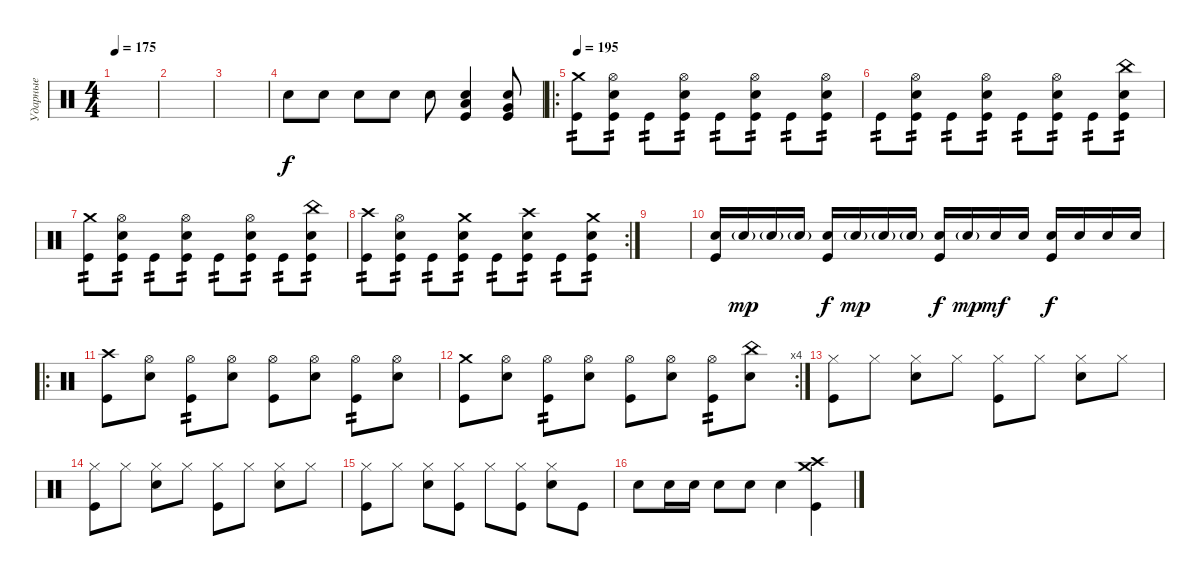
\track ("Ударные" "Ударные") {instrument percussion}
\staff {score}
\articulation defaults
\ts (4 4)
\tempo 175
\clef neutral
\ks c
|
|
|
"Snare (hit)".8 "Snare (hit)".8 "Snare (hit)".8 "Snare (hit)".8 "Snare (hit)".8 ("Electric Snare (hit)" "Low Floor Tom (hit)" "Kick (hit)").4 ("Electric Snare (hit)" "Very Low Tom (hit)" "Kick (hit)").8 |
\ro
\tempo 195
("Kick (hit)" "Crash medium (hit)").8{tp 2} ("Kick (hit)" "Electric Snare (hit)" "Hi-Hat (open)").8{tp 2} "Kick (hit)".8{tp 2} ("Kick (hit)" "Electric Snare (hit)" "Hi-Hat (open)").8{tp 2} "Kick (hit)".8{tp 2} ("Kick (hit)" "Electric Snare (hit)" "Hi-Hat (open)").8{tp 2} "Kick (hit)".8{tp 2} ("Kick (hit)" "Electric Snare (hit)" "Hi-Hat (open)").8{tp 2} |
"Kick (hit)".8{tp 2} ("Kick (hit)" "Electric Snare (hit)" "Hi-Hat (open)").8{tp 2} "Kick (hit)".8{tp 2} ("Kick (hit)" "Electric Snare (hit)" "Hi-Hat (open)").8{tp 2} "Kick (hit)".8{tp 2} ("Kick (hit)" "Electric Snare (hit)" "Hi-Hat (open)").8{tp 2} "Kick (hit)".8{tp 2} ("Kick (hit)" "Electric Snare (hit)" "China (hit)").8{tp 2} |
("Kick (hit)" "Crash medium (hit)").8{tp 2} ("Kick (hit)" "Electric Snare (hit)" "Hi-Hat (open)").8{tp 2} "Kick (hit)".8{tp 2} ("Kick (hit)" "Electric Snare (hit)" "Hi-Hat (open)").8{tp 2} "Kick (hit)".8{tp 2} ("Kick (hit)" "Electric Snare (hit)" "Hi-Hat (open)").8{tp 2} "Kick (hit)".8{tp 2} ("Kick (hit)" "Electric Snare (hit)" "China (hit)").8{tp 2} |
\rc 2
("Kick (hit)" "Crash high (hit)").8{tp 2} ("Kick (hit)" "Electric Snare (hit)" "Hi-Hat (open)").8{tp 2} "Kick (hit)".8{tp 2} ("Kick (hit)" "Electric Snare (hit)" "Crash medium (hit)").8{tp 2} "Kick (hit)".8{tp 2} ("Kick (hit)" "Electric Snare (hit)" "Crash high (hit)").8{tp 2} "Kick (hit)".8{tp 2} ("Kick (hit)" "Electric Snare (hit)" "Crash medium (hit)").8{tp 2} |
|
("Electric Snare (hit)" "Kick (hit)").16 "Electric Snare (hit)"{g}.16{dy mp} "Electric Snare (hit)"{g}.16 "Electric Snare (hit)"{g}.16 ("Electric Snare (hit)" "Kick (hit)").16{dy f} "Electric Snare (hit)"{g}.16{dy mp} "Electric Snare (hit)"{g}.16 "Electric Snare (hit)"{g}.16 ("Electric Snare (hit)" "Kick (hit)").16{dy f} "Electric Snare (hit)"{g}.16{dy mp} "Electric Snare (hit)".16{dy mf} "Electric Snare (hit)".16 ("Electric Snare (hit)" "Kick (hit)").16{dy f} "Electric Snare (hit)".16 "Electric Snare (hit)".16 "Electric Snare (hit)".16 |
\ro
("Kick (hit)" "Crash high (hit)").8 ("Electric Snare (hit)" "Hi-Hat (open)").8 ("Kick (hit)" "Hi-Hat (open)").8{tp 2} ("Electric Snare (hit)" "Hi-Hat (open)").8 ("Kick (hit)" "Hi-Hat (open)").8 ("Electric Snare (hit)" "Hi-Hat (open)").8 ("Kick (hit)" "Hi-Hat (open)").8{tp 2} ("Electric Snare (hit)" "Hi-Hat (open)").8 |
\rc 4
("Kick (hit)" "Crash medium (hit)").8 ("Electric Snare (hit)" "Hi-Hat (open)").8 ("Kick (hit)" "Hi-Hat (open)").8{tp 2} ("Electric Snare (hit)" "Hi-Hat (open)").8 ("Kick (hit)" "Hi-Hat (open)").8 ("Electric Snare (hit)" "Hi-Hat (open)").8 ("Kick (hit)" "Hi-Hat (open)").8{tp 2} ("Electric Snare (hit)" "China (hit)").8 |
("Hi-Hat (closed)" "Kick (hit)").8 "Hi-Hat (closed)".8 ("Hi-Hat (closed)" "Electric Snare (hit)").8 "Hi-Hat (closed)".8 ("Hi-Hat (closed)" "Kick (hit)").8 "Hi-Hat (closed)".8 ("Hi-Hat (closed)" "Electric Snare (hit)").8 "Hi-Hat (closed)".8 |
("Hi-Hat (closed)" "Kick (hit)").8 "Hi-Hat (closed)".8 ("Hi-Hat (closed)" "Electric Snare (hit)").8 "Hi-Hat (closed)".8 ("Hi-Hat (closed)" "Kick (hit)").8 "Hi-Hat (closed)".8 ("Hi-Hat (closed)" "Electric Snare (hit)").8 "Hi-Hat (closed)".8 |
("Hi-Hat (closed)" "Kick (hit)").8 "Hi-Hat (closed)".8 ("Hi-Hat (closed)" "Electric Snare (hit)").8 ("Hi-Hat (closed)" "Kick (hit)").8 "Hi-Hat (closed)".8 ("Hi-Hat (closed)" "Kick (hit)").8 ("Hi-Hat (closed)" "Electric Snare (hit)").8 "Kick (hit)".8 |
"Electric Snare (hit)".8 "Electric Snare (hit)".16 "Electric Snare (hit)".16 "Electric Snare (hit)".8 "Electric Snare (hit)".8 "Electric Snare (hit)".4 ("Crash medium (hit)" "Kick (hit)" "Crash high (hit)").4{balance 6}
